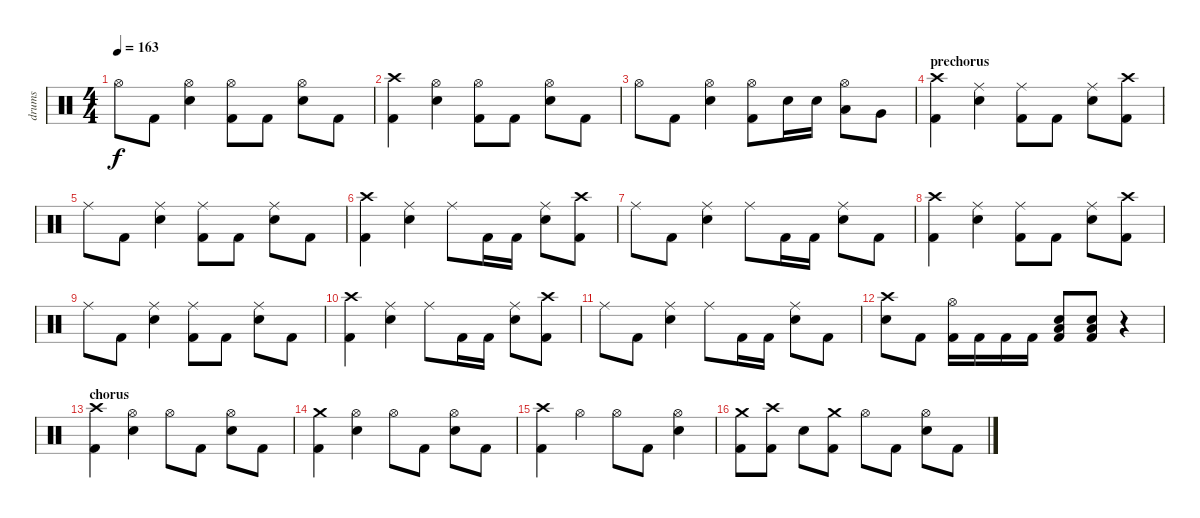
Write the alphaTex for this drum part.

\track ("drums" "drums") {instrument percussion}
\staff {score}
\articulation defaults
\ts (4 4)
\tempo 163
\clef neutral
\ks c "Hi-Hat (open)".8{dy f} "Kick (hit) 2".8
("Hi-Hat (open)" "Electric Snare (hit)").4 ("Hi-Hat (open)" "Kick (hit) 2").8 "Kick (hit) 2".8 ("Hi-Hat (open)" "Electric Snare (hit)").8 "Kick (hit) 2".8 |
("Crash high (hit)" "Kick (hit) 2").4 ("Hi-Hat (open)" "Electric Snare (hit)").4 ("Hi-Hat (open)" "Kick (hit) 2").8 "Kick (hit) 2".8 ("Hi-Hat (open)" "Electric Snare (hit)").8 "Kick (hit) 2".8 |
"Hi-Hat (open)".8 "Kick (hit) 2".8 ("Hi-Hat (open)" "Electric Snare (hit)").4 ("Hi-Hat (open)" "Kick (hit) 2").8 "Electric Snare (hit)".16 "Electric Snare (hit)".16 ("Hi-Hat (open)" "Low Tom (hit)").8 "Very Low Tom (hit)".8 |
\section ("" "prechorus")
("Crash high (hit)" "Kick (hit) 2").4 ("Ride (middle)" "Electric Snare (hit)").4 ("Ride (middle)" "Kick (hit) 2").8 "Kick (hit) 2".8 ("Ride (middle)" "Electric Snare (hit)").8 ("Crash high (hit)" "Kick (hit) 2").8 |
"Ride (middle)".8 "Kick (hit) 2".8 ("Ride (middle)" "Electric Snare (hit)").4 ("Ride (middle)" "Kick (hit) 2").8 "Kick (hit) 2".8 ("Ride (middle)" "Electric Snare (hit)").8 "Kick (hit) 2".8 |
("Crash high (hit)" "Kick (hit) 2").4 ("Ride (middle)" "Electric Snare (hit)").4 "Ride (middle)".8 "Kick (hit) 2".16 "Kick (hit) 2".16 ("Ride (middle)" "Electric Snare (hit)").8 ("Crash high (hit)" "Kick (hit) 2").8 |
"Ride (middle)".8 "Kick (hit) 2".8 ("Ride (middle)" "Electric Snare (hit)").4 "Ride (middle)".8 "Kick (hit) 2".16 "Kick (hit) 2".16 ("Ride (middle)" "Electric Snare (hit)").8 "Kick (hit) 2".8 |
("Crash high (hit)" "Kick (hit) 2").4 ("Ride (middle)" "Electric Snare (hit)").4 ("Ride (middle)" "Kick (hit) 2").8 "Kick (hit) 2".8 ("Ride (middle)" "Electric Snare (hit)").8 ("Crash high (hit)" "Kick (hit) 2").8 |
"Ride (middle)".8 "Kick (hit) 2".8 ("Ride (middle)" "Electric Snare (hit)").4 ("Ride (middle)" "Kick (hit) 2").8 "Kick (hit) 2".8 ("Ride (middle)" "Electric Snare (hit)").8 "Kick (hit) 2".8 |
("Crash high (hit)" "Kick (hit) 2").4 ("Ride (middle)" "Electric Snare (hit)").4 "Ride (middle)".8 "Kick (hit) 2".16 "Kick (hit) 2".16 ("Ride (middle)" "Electric Snare (hit)").8 ("Crash high (hit)" "Kick (hit) 2").8 |
"Ride (middle)".8 "Kick (hit) 2".8 ("Ride (middle)" "Electric Snare (hit)").4 "Ride (middle)".8 "Kick (hit) 2".16 "Kick (hit) 2".16 ("Ride (middle)" "Electric Snare (hit)").8 "Kick (hit) 2".8 |
("Crash high (hit)" "Electric Snare (hit)").8 "Kick (hit) 2".8 ("Hi-Hat (open)" "Kick (hit) 2").16 "Kick (hit) 2".16 "Kick (hit) 2".16 "Kick (hit) 2".16 ("Low Floor Tom (hit)" "Electric Snare (hit)" "Kick (hit) 2").8 ("Low Floor Tom (hit)" "Electric Snare (hit)" "Kick (hit) 2").8 r.4 |
\section ("" "chorus")
("Crash high (hit)" "Kick (hit) 2").4 ("Hi-Hat (open)" "Electric Snare (hit)").4 "Hi-Hat (open)".8 "Kick (hit) 2".8 ("Hi-Hat (open)" "Electric Snare (hit)").8 "Kick (hit) 2".8 |
("Crash medium (hit)" "Kick (hit) 2").4 ("Hi-Hat (open)" "Electric Snare (hit)").4 "Hi-Hat (open)".8 "Kick (hit) 2".8 ("Hi-Hat (open)" "Electric Snare (hit)").8 "Kick (hit) 2".8 |
("Crash high (hit)" "Kick (hit) 2").4 "Hi-Hat (open)".4 "Hi-Hat (open)".8 "Kick (hit) 2".8 ("Hi-Hat (open)" "Electric Snare (hit)").4 |
("Crash medium (hit)" "Kick (hit) 2").8 ("Crash high (hit)" "Kick (hit) 2").8 "Electric Snare (hit)".8 ("Crash medium (hit)" "Kick (hit) 2").8 "Hi-Hat (open)".8 "Kick (hit) 2".8 ("Hi-Hat (open)" "Electric Snare (hit)").8 "Kick (hit) 2".8
